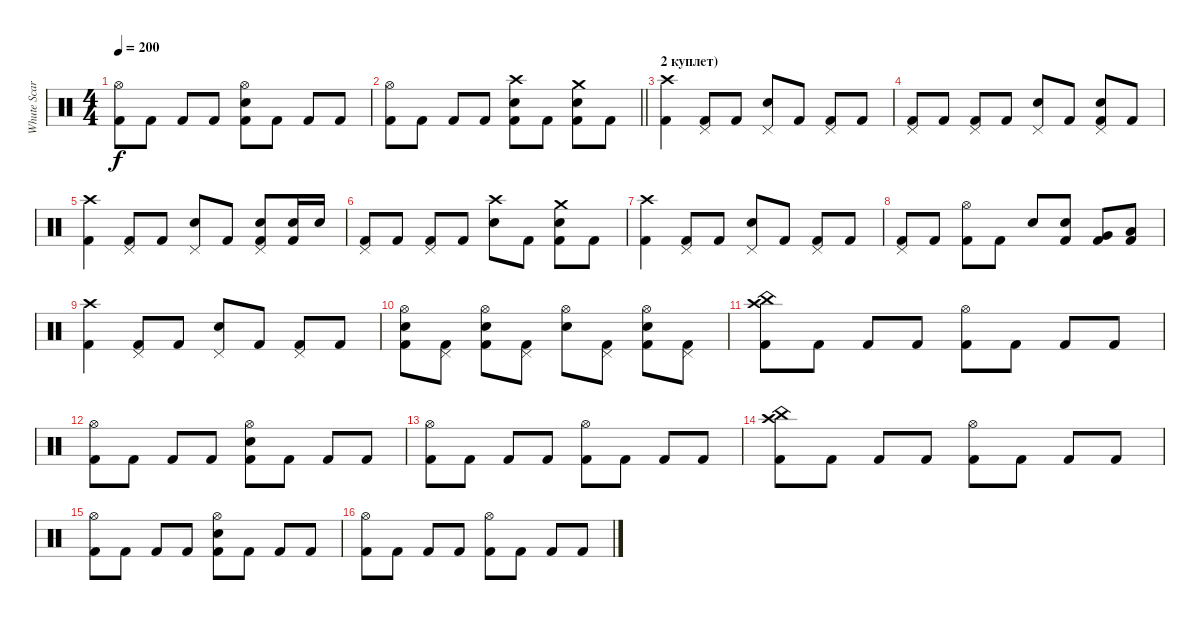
\track ("Whute Scar" "Whute Scar") {instrument percussion}
\staff {score}
\articulation defaults
\ts (4 4)
\tempo 200
\clef neutral
\ks c
("Hi-Hat (open)" "Kick (hit) 2").8{dy f} "Kick (hit) 2".8 "Kick (hit) 2".8 "Kick (hit) 2".8 ("Snare (hit) 2" "Hi-Hat (open)" "Kick (hit) 2").8 "Kick (hit) 2".8 "Kick (hit) 2".8 "Kick (hit) 2".8 |
\barLineRight lightlight
("Hi-Hat (open)" "Kick (hit) 2").8 "Kick (hit) 2".8 "Kick (hit) 2".8 "Kick (hit) 2".8 ("Snare (hit) 2" "Crash high (hit)" "Kick (hit) 2").8 "Kick (hit) 2".8 ("Snare (hit) 2" "Crash medium (hit)" "Kick (hit) 2").8 "Kick (hit) 2".8 |
\section ("" "2 куплет)")
("Crash high (hit)" "Kick (hit) 2").4 ("Pedal Hi-Hat (hit)" "Kick (hit) 2").8 "Kick (hit) 2".8 ("Snare (hit) 2" "Pedal Hi-Hat (hit)").8 "Kick (hit) 2".8 ("Pedal Hi-Hat (hit)" "Kick (hit) 2").8 "Kick (hit) 2".8 |
("Pedal Hi-Hat (hit)" "Kick (hit) 2").8 "Kick (hit) 2".8 ("Pedal Hi-Hat (hit)" "Kick (hit) 2").8 "Kick (hit) 2".8 ("Snare (hit) 2" "Pedal Hi-Hat (hit)").8 "Kick (hit) 2".8 ("Snare (hit) 2" "Pedal Hi-Hat (hit)" "Kick (hit) 2").8 "Kick (hit) 2".8 |
("Crash high (hit)" "Kick (hit) 2").4 ("Pedal Hi-Hat (hit)" "Kick (hit) 2").8 "Kick (hit) 2".8 ("Snare (hit) 2" "Pedal Hi-Hat (hit)").8 "Kick (hit) 2".8 ("Snare (hit) 2" "Pedal Hi-Hat (hit)" "Kick (hit) 2").8 ("Snare (hit) 2" "Kick (hit) 2").16 "Snare (hit) 2".16 |
("Pedal Hi-Hat (hit)" "Kick (hit) 2").8 "Kick (hit) 2".8 ("Pedal Hi-Hat (hit)" "Kick (hit) 2").8 "Kick (hit) 2".8 ("Snare (hit) 2" "Crash high (hit)").8 "Kick (hit) 2".8 ("Snare (hit) 2" "Crash medium (hit)" "Kick (hit) 2").8 "Kick (hit) 2".8 |
("Crash high (hit)" "Kick (hit) 2").4 ("Pedal Hi-Hat (hit)" "Kick (hit) 2").8 "Kick (hit) 2".8 ("Snare (hit) 2" "Pedal Hi-Hat (hit)").8 "Kick (hit) 2".8 ("Pedal Hi-Hat (hit)" "Kick (hit) 2").8 "Kick (hit) 2".8 |
("Pedal Hi-Hat (hit)" "Kick (hit) 2").8 "Kick (hit) 2".8 ("Hi-Hat (open)" "Kick (hit) 2").8 "Kick (hit) 2".8 "Snare (hit) 2".8 ("Snare (hit) 2" "Kick (hit) 2").8 ("Very Low Tom (hit)" "Kick (hit) 2").8 ("Low Tom (hit)" "Kick (hit) 2").8 |
("Crash high (hit)" "Kick (hit) 2").4 ("Pedal Hi-Hat (hit)" "Kick (hit) 2").8 "Kick (hit) 2".8 ("Snare (hit) 2" "Pedal Hi-Hat (hit)").8 "Kick (hit) 2".8 ("Pedal Hi-Hat (hit)" "Kick (hit) 2").8 "Kick (hit) 2".8 |
("Snare (hit) 2" "Hi-Hat (open)" "Kick (hit) 2").8 ("Pedal Hi-Hat (hit)" "Kick (hit) 2").8 ("Snare (hit) 2" "Hi-Hat (open)" "Kick (hit) 2").8 ("Pedal Hi-Hat (hit)" "Kick (hit) 2").8 ("Snare (hit) 2" "Hi-Hat (open)").8 ("Pedal Hi-Hat (hit)" "Kick (hit) 2").8 ("Snare (hit) 2" "Hi-Hat (open)" "Kick (hit) 2").8 ("Pedal Hi-Hat (hit)" "Kick (hit) 2").8 |
("Kick (hit) 2" "Crash high (hit)" "China (hit)").8 "Kick (hit) 2".8 "Kick (hit) 2".8 "Kick (hit) 2".8 ("Kick (hit) 2" "Hi-Hat (open)").8 "Kick (hit) 2".8 "Kick (hit) 2".8 "Kick (hit) 2".8 |
("Kick (hit) 2" "Hi-Hat (open)").8 "Kick (hit) 2".8 "Kick (hit) 2".8 "Kick (hit) 2".8 ("Kick (hit) 2" "Snare (hit) 2" "Hi-Hat (open)").8 "Kick (hit) 2".8 "Kick (hit) 2".8 "Kick (hit) 2".8 |
("Kick (hit) 2" "Hi-Hat (open)").8 "Kick (hit) 2".8 "Kick (hit) 2".8 "Kick (hit) 2".8 ("Kick (hit) 2" "Hi-Hat (open)").8 "Kick (hit) 2".8 "Kick (hit) 2".8 "Kick (hit) 2".8 |
("Kick (hit) 2" "Crash high (hit)" "China (hit)").8 "Kick (hit) 2".8 "Kick (hit) 2".8 "Kick (hit) 2".8 ("Kick (hit) 2" "Hi-Hat (open)").8 "Kick (hit) 2".8 "Kick (hit) 2".8 "Kick (hit) 2".8 |
("Kick (hit) 2" "Hi-Hat (open)").8 "Kick (hit) 2".8 "Kick (hit) 2".8 "Kick (hit) 2".8 ("Kick (hit) 2" "Snare (hit) 2" "Hi-Hat (open)").8 "Kick (hit) 2".8 "Kick (hit) 2".8 "Kick (hit) 2".8 |
("Kick (hit) 2" "Hi-Hat (open)").8 "Kick (hit) 2".8 "Kick (hit) 2".8 "Kick (hit) 2".8 ("Kick (hit) 2" "Hi-Hat (open)").8 "Kick (hit) 2".8 "Kick (hit) 2".8 "Kick (hit) 2".8
